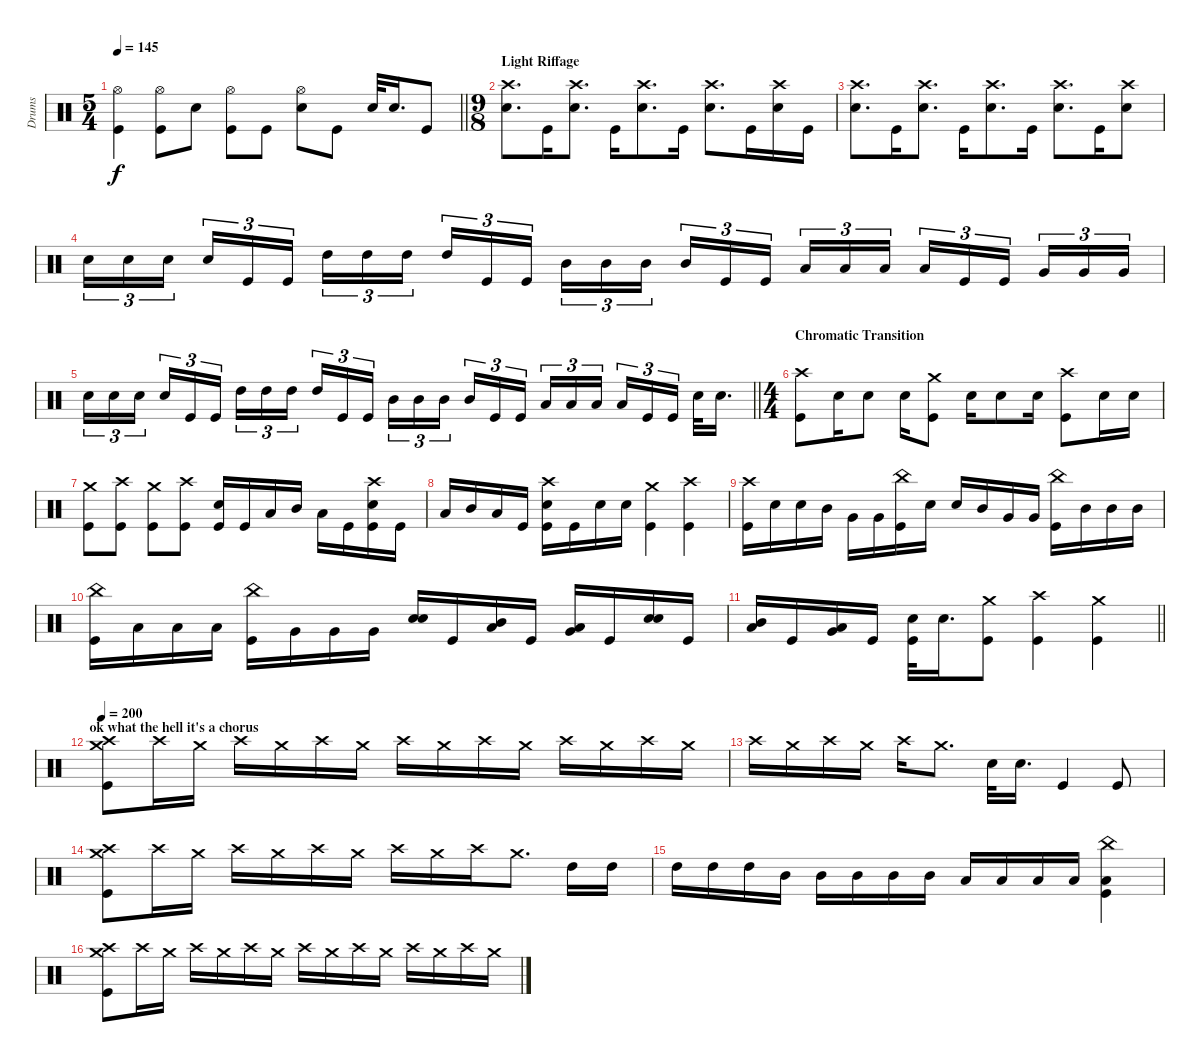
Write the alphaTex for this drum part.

\track ("Drums" "Drums") {instrument percussion}
\staff {score}
\articulation defaults
\ts (5 4)
\tempo 145
\clef neutral
\barLineRight lightlight
\ks c
("Hi-Hat (open)" "Kick (hit)").4{dy f} ("Hi-Hat (open)" "Kick (hit)").8 "Electric Snare (hit)".8 ("Hi-Hat (open)" "Kick (hit)").8 "Kick (hit)".8 ("Hi-Hat (open)" "Electric Snare (hit)").8 "Kick (hit)".8 "Electric Snare (hit)".32 "Electric Snare (hit)".16{d} "Kick (hit)".8 |
\ts (9 8)
\section ("" "Light Riffage")
("Crash high (hit)" "Electric Snare (hit)").8{d} "Kick (hit)".16 ("Crash high (hit)" "Electric Snare (hit)").8{d} "Kick (hit)".16 ("Crash high (hit)" "Electric Snare (hit)").8{d} "Kick (hit)".16 ("Crash high (hit)" "Electric Snare (hit)").8{d} "Kick (hit)".16 ("Crash high (hit)" "Electric Snare (hit)").16 "Kick (hit)".16 |
("Crash high (hit)" "Electric Snare (hit)").8{d} "Kick (hit)".16 ("Crash high (hit)" "Electric Snare (hit)").8{d} "Kick (hit)".16 ("Crash high (hit)" "Electric Snare (hit)").8{d} "Kick (hit)".16 ("Crash high (hit)" "Electric Snare (hit)").8{d} "Kick (hit)".16 ("Crash high (hit)" "Electric Snare (hit)").8 |
"Electric Snare (hit)".16{tu (3 2)} "Electric Snare (hit)".16{tu (3 2)} "Electric Snare (hit)".16{tu (3 2)} "Electric Snare (hit)".16{tu (3 2)} "Kick (hit)".16{tu (3 2)} "Kick (hit)".16{tu (3 2)} "High Tom (hit)".16{tu (3 2)} "High Tom (hit)".16{tu (3 2)} "High Tom (hit)".16{tu (3 2)} "High Tom (hit)".16{tu (3 2)} "Kick (hit)".16{tu (3 2)} "Kick (hit)".16{tu (3 2)} "Mid Tom (hit)".16{tu (3 2)} "Mid Tom (hit)".16{tu (3 2)} "Mid Tom (hit)".16{tu (3 2)} "Mid Tom (hit)".16{tu (3 2)} "Kick (hit)".16{tu (3 2)} "Kick (hit)".16{tu (3 2)} "Low Tom (hit)".16{tu (3 2)} "Low Tom (hit)".16{tu (3 2)} "Low Tom (hit)".16{tu (3 2)} "Low Tom (hit)".16{tu (3 2)} "Kick (hit)".16{tu (3 2)} "Kick (hit)".16{tu (3 2)} "Very Low Tom (hit)".16{tu (3 2)} "Very Low Tom (hit)".16{tu (3 2)} "Very Low Tom (hit)".16{tu (3 2)} |
\barLineRight lightlight "Electric Snare (hit)".16{tu (3 2)} "Electric Snare (hit)".16{tu (3 2)} "Electric Snare (hit)".16{tu (3 2)} "Electric Snare (hit)".16{tu (3 2)} "Kick (hit)".16{tu (3 2)} "Kick (hit)".16{tu (3 2)} "High Tom (hit)".16{tu (3 2)} "High Tom (hit)".16{tu (3 2)} "High Tom (hit)".16{tu (3 2)} "High Tom (hit)".16{tu (3 2)} "Kick (hit)".16{tu (3 2)} "Kick (hit)".16{tu (3 2)} "Mid Tom (hit)".16{tu (3 2)} "Mid Tom (hit)".16{tu (3 2)} "Mid Tom (hit)".16{tu (3 2)} "Mid Tom (hit)".16{tu (3 2)} "Kick (hit)".16{tu (3 2)} "Kick (hit)".16{tu (3 2)} "Low Tom (hit)".16{tu (3 2)} "Low Tom (hit)".16{tu (3 2)} "Low Tom (hit)".16{tu (3 2)} "Low Tom (hit)".16{tu (3 2)} "Kick (hit)".16{tu (3 2)} "Kick (hit)".16{tu (3 2)} "Electric Snare (hit)".32 "Electric Snare (hit)".16{d}
|
\ts (4 4)
\section ("" "Chromatic Transition")
("Crash high (hit)" "Kick (hit)").8 "Electric Snare (hit)".16 "Electric Snare (hit)".8 "Electric Snare (hit)".16 ("Crash medium (hit)" "Kick (hit)").8 "Electric Snare (hit)".16 "Electric Snare (hit)".8 "Electric Snare (hit)".16 ("Crash high (hit)" "Kick (hit)").8 "Electric Snare (hit)".16 "Electric Snare (hit)".16 |
("Crash medium (hit)" "Kick (hit)").8 ("Crash high (hit)" "Kick (hit)").8 ("Crash medium (hit)" "Kick (hit)").8 ("Crash high (hit)" "Kick (hit)").8 ("Electric Snare (hit)" "Kick (hit)").16 "Kick (hit)".16 "Low Tom (hit)".16 "Mid Tom (hit)".16 "Low Tom (hit)".16 "Kick (hit)".16 ("Crash high (hit)" "Electric Snare (hit)" "Kick (hit)").16 "Kick (hit)".16 |
"Low Tom (hit)".16 "Mid Tom (hit)".16 "Low Tom (hit)".16 "Kick (hit)".16 ("Crash high (hit)" "Electric Snare (hit)" "Kick (hit)").16 "Kick (hit)".16 "Electric Snare (hit)".16 "Electric Snare (hit)".16 ("Crash medium (hit)" "Kick (hit)").4 ("Crash high (hit)" "Kick (hit)").4 |
("Crash high (hit)" "Kick (hit)").16 "Electric Snare (hit)".16 "Electric Snare (hit)".16 "Mid Tom (hit)".16 "Very Low Tom (hit)".16 "Very Low Tom (hit)".16 ("China (hit)" "Kick (hit)").16 "Electric Snare (hit)".16 "Electric Snare (hit)".16 "Mid Tom (hit)".16 "Very Low Tom (hit)".16 "Very Low Tom (hit)".16 ("China (hit)" "Kick (hit)").16 "Mid Tom (hit)".16 "Mid Tom (hit)".16 "Mid Tom (hit)".16 |
("China (hit)" "Kick (hit)").16 "Low Tom (hit)".16 "Low Tom (hit)".16 "Low Tom (hit)".16 ("China (hit)" "Kick (hit)").16 "Very Low Tom (hit)".16 "Very Low Tom (hit)".16 "Very Low Tom (hit)".16 ("Electric Snare (hit)" "Electric Snare (hit)").16 "Kick (hit)".16 ("Mid Tom (hit)" "Low Tom (hit)").16 "Kick (hit)".16 ("Low Tom (hit)" "Very Low Tom (hit)").16 "Kick (hit)".16 ("Electric Snare (hit)" "Electric Snare (hit)").16 "Kick (hit)".16 |
\barLineRight lightlight
("Mid Tom (hit)" "Low Tom (hit)").16 "Kick (hit)".16 ("Low Tom (hit)" "Very Low Tom (hit)").16 "Kick (hit)".16 ("Electric Snare (hit)" "Kick (hit)").32 "Electric Snare (hit)".16{d} ("Crash medium (hit)" "Kick (hit)").8 ("Crash high (hit)" "Kick (hit)").4 ("Crash medium (hit)" "Kick (hit)").4 |
\section ("" "ok what the hell it's a chorus")
\tempo 200
("Crash medium (hit)" "Crash high (hit)" "Kick (hit)").8 "Crash high (hit)".16{volume 8} "Crash medium (hit)".16{volume 13} "Crash high (hit)".16 "Crash medium (hit)".16 "Crash high (hit)".16 "Crash medium (hit)".16 "Crash high (hit)".16 "Crash medium (hit)".16 "Crash high (hit)".16 "Crash medium (hit)".16 "Crash high (hit)".16 "Crash medium (hit)".16 "Crash high (hit)".16 "Crash medium (hit)".16 |
"Crash high (hit)".16 "Crash medium (hit)".16 "Crash high (hit)".16 "Crash medium (hit)".16 "Crash high (hit)".16 "Crash medium (hit)".8{d} "Electric Snare (hit)".32 "Electric Snare (hit)".16{d} "Kick (hit)".4 "Kick (hit)".8 |
("Crash medium (hit)" "Crash high (hit)" "Kick (hit)").8 "Crash high (hit)".16{volume 8} "Crash medium (hit)".16{volume 13} "Crash high (hit)".16 "Crash medium (hit)".16 "Crash high (hit)".16 "Crash medium (hit)".16 "Crash high (hit)".16 "Crash medium (hit)".16 "Crash high (hit)".16 "Crash medium (hit)".8{d} "High Tom (hit)".16 "High Tom (hit)".16 |
"High Tom (hit)".16 "High Tom (hit)".16 "High Tom (hit)".16 "Mid Tom (hit)".16 "Mid Tom (hit)".16 "Mid Tom (hit)".16 "Mid Tom (hit)".16 "Mid Tom (hit)".16 "Low Tom (hit)".16 "Low Tom (hit)".16 "Low Tom (hit)".16 "Low Tom (hit)".16 ("China (hit)" "Low Tom (hit)" "Kick (hit)").4 |
("Crash medium (hit)" "Crash high (hit)" "Kick (hit)").8 "Crash high (hit)".16{volume 8} "Crash medium (hit)".16{volume 13} "Crash high (hit)".16 "Crash medium (hit)".16 "Crash high (hit)".16 "Crash medium (hit)".16 "Crash high (hit)".16 "Crash medium (hit)".16 "Crash high (hit)".16 "Crash medium (hit)".16 "Crash high (hit)".16 "Crash medium (hit)".16 "Crash high (hit)".16 "Crash medium (hit)".16
